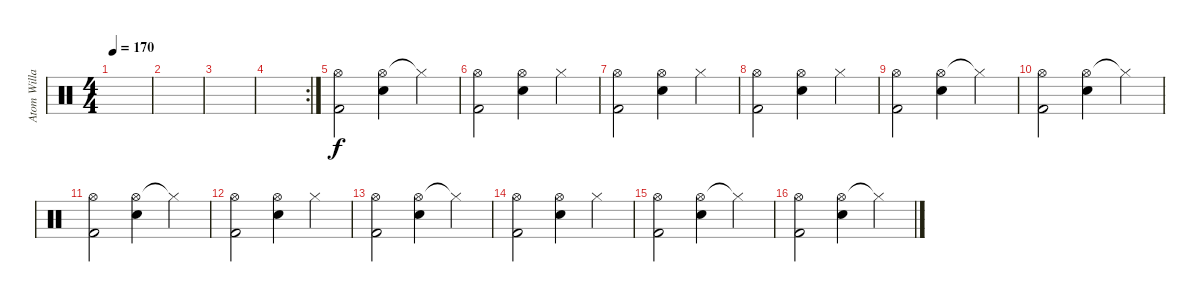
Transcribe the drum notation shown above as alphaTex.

\track ("Atom Willard" "Atom Willa") {instrument percussion}
\staff {score}
\articulation defaults
\ts (4 4)
\tempo 170
\clef neutral
\ks c
|
|
|
\rc 2
|
("Hi-Hat (open)" "Kick (hit) 2").2 ("Hi-Hat (open)" "Electric Snare (hit)").4 "Hi-Hat (closed)"{t}.4 |
("Hi-Hat (open)" "Kick (hit) 2").2 ("Hi-Hat (open)" "Electric Snare (hit)").4 "Hi-Hat (closed)".4 |
("Hi-Hat (open)" "Kick (hit) 2").2 ("Hi-Hat (open)" "Electric Snare (hit)").4 "Hi-Hat (closed)".4 |
("Hi-Hat (open)" "Kick (hit) 2").2 ("Hi-Hat (open)" "Electric Snare (hit)").4 "Hi-Hat (closed)".4 |
("Hi-Hat (open)" "Kick (hit) 2").2 ("Hi-Hat (open)" "Electric Snare (hit)").4 "Hi-Hat (closed)"{t}.4 |
("Hi-Hat (open)" "Kick (hit) 2").2 ("Hi-Hat (open)" "Electric Snare (hit)").4 "Hi-Hat (closed)"{t}.4 |
("Hi-Hat (open)" "Kick (hit) 2").2 ("Hi-Hat (open)" "Electric Snare (hit)").4 "Hi-Hat (closed)"{t}.4 |
("Hi-Hat (open)" "Kick (hit) 2").2 ("Hi-Hat (open)" "Electric Snare (hit)").4 "Hi-Hat (closed)".4 |
("Hi-Hat (open)" "Kick (hit) 2").2 ("Hi-Hat (open)" "Electric Snare (hit)").4 "Hi-Hat (closed)"{t}.4 |
("Hi-Hat (open)" "Kick (hit) 2").2 ("Hi-Hat (open)" "Electric Snare (hit)").4 "Hi-Hat (closed)".4 |
("Hi-Hat (open)" "Kick (hit) 2").2 ("Hi-Hat (open)" "Electric Snare (hit)").4 "Hi-Hat (closed)"{t}.4 |
("Hi-Hat (open)" "Kick (hit) 2").2 ("Hi-Hat (open)" "Electric Snare (hit)").4 "Hi-Hat (closed)"{t}.4
